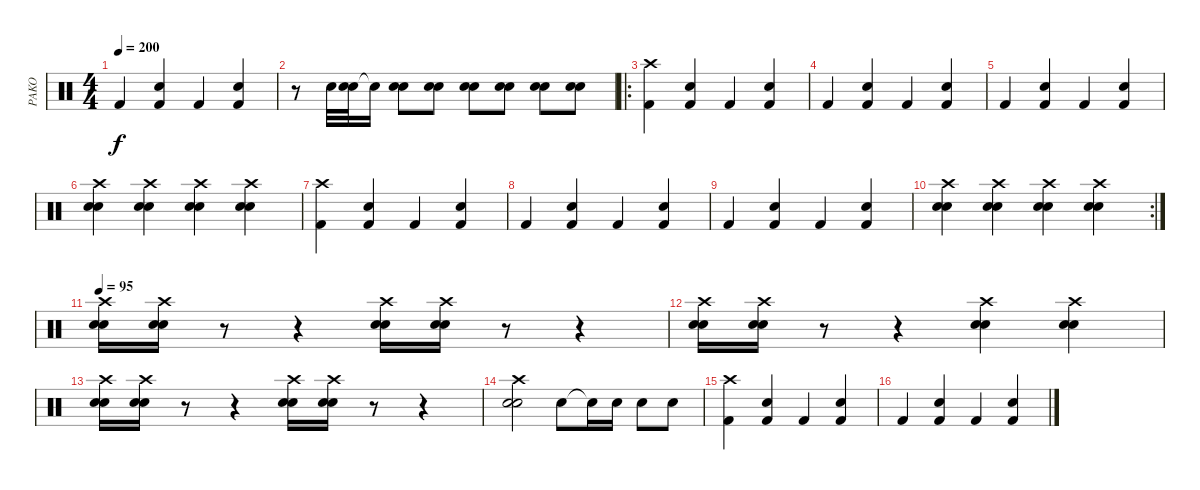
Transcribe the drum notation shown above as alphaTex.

\track ("PAKO" "PAKO") {instrument percussion}
\staff {score}
\articulation defaults
\ts (4 4)
\tempo 200
\clef neutral
\ks c "Kick (hit) 2".4{dy f}
("Electric Snare (hit)" "Kick (hit) 2").4 "Kick (hit) 2".4 ("Electric Snare (hit)" "Kick (hit) 2").4 |
r.8 "Snare (hit) 2".32 ("Electric Snare (hit)" "Snare (hit) 2").32 "Snare (hit)"{t}.16 ("Electric Snare (hit)" "Snare (hit) 2").8 ("Electric Snare (hit)" "Snare (hit) 2").8 ("Electric Snare (hit)" "Snare (hit) 2").8 ("Electric Snare (hit)" "Snare (hit) 2").8 ("Electric Snare (hit)" "Snare (hit) 2").8 ("Electric Snare (hit)" "Snare (hit) 2").8 |
\ro
("Crash high (hit)" "Kick (hit) 2").4 ("Electric Snare (hit)" "Kick (hit) 2").4 "Kick (hit) 2".4 ("Electric Snare (hit)" "Kick (hit) 2").4 |
"Kick (hit) 2".4 ("Electric Snare (hit)" "Kick (hit) 2").4 "Kick (hit) 2".4 ("Electric Snare (hit)" "Kick (hit) 2").4 |
"Kick (hit) 2".4 ("Electric Snare (hit)" "Kick (hit) 2").4 "Kick (hit) 2".4 ("Electric Snare (hit)" "Kick (hit) 2").4 |
("Crash high (hit)" "Electric Snare (hit)" "Snare (hit) 2").4 ("Crash high (hit)" "Electric Snare (hit)" "Snare (hit) 2").4 ("Crash high (hit)" "Electric Snare (hit)" "Snare (hit) 2").4 ("Crash high (hit)" "Electric Snare (hit)" "Snare (hit) 2").4 |
("Crash high (hit)" "Kick (hit) 2").4 ("Electric Snare (hit)" "Kick (hit) 2").4 "Kick (hit) 2".4 ("Electric Snare (hit)" "Kick (hit) 2").4 |
"Kick (hit) 2".4 ("Electric Snare (hit)" "Kick (hit) 2").4 "Kick (hit) 2".4 ("Electric Snare (hit)" "Kick (hit) 2").4 |
"Kick (hit) 2".4 ("Electric Snare (hit)" "Kick (hit) 2").4 "Kick (hit) 2".4 ("Electric Snare (hit)" "Kick (hit) 2").4 |
\rc 2
("Crash high (hit)" "Electric Snare (hit)" "Snare (hit) 2").4 ("Crash high (hit)" "Electric Snare (hit)" "Snare (hit) 2").4 ("Crash high (hit)" "Electric Snare (hit)" "Snare (hit) 2").4 ("Crash high (hit)" "Electric Snare (hit)" "Snare (hit) 2").4 |
\tempo 95
("Crash high (hit)" "Electric Snare (hit)" "Snare (hit) 2").16 ("Crash high (hit)" "Electric Snare (hit)" "Snare (hit) 2").16 r.8 r.4 ("Crash high (hit)" "Electric Snare (hit)" "Snare (hit) 2").16 ("Crash high (hit)" "Electric Snare (hit)" "Snare (hit) 2").16 r.8 r.4 |
("Crash high (hit)" "Electric Snare (hit)" "Snare (hit) 2").16 ("Crash high (hit)" "Electric Snare (hit)" "Snare (hit) 2").16 r.8 r.4 ("Crash high (hit)" "Electric Snare (hit)" "Snare (hit) 2").4 ("Crash high (hit)" "Electric Snare (hit)" "Snare (hit) 2").4 |
("Crash high (hit)" "Electric Snare (hit)" "Snare (hit) 2").16 ("Crash high (hit)" "Electric Snare (hit)" "Snare (hit) 2").16 r.8 r.4 ("Crash high (hit)" "Electric Snare (hit)" "Snare (hit) 2").16 ("Crash high (hit)" "Electric Snare (hit)" "Snare (hit) 2").16 r.8 r.4 |
("Crash high (hit)" "Electric Snare (hit)" "Snare (hit) 2").2 "Electric Snare (hit)".8 "Snare (hit)"{t}.16 "Electric Snare (hit)".16 "Snare (hit) 2".8 "Snare (hit) 2".8 |
("Crash high (hit)" "Kick (hit) 2").4 ("Electric Snare (hit)" "Kick (hit) 2").4 "Kick (hit) 2".4 ("Electric Snare (hit)" "Kick (hit) 2").4 |
"Kick (hit) 2".4 ("Electric Snare (hit)" "Kick (hit) 2").4 "Kick (hit) 2".4 ("Electric Snare (hit)" "Kick (hit) 2").4
